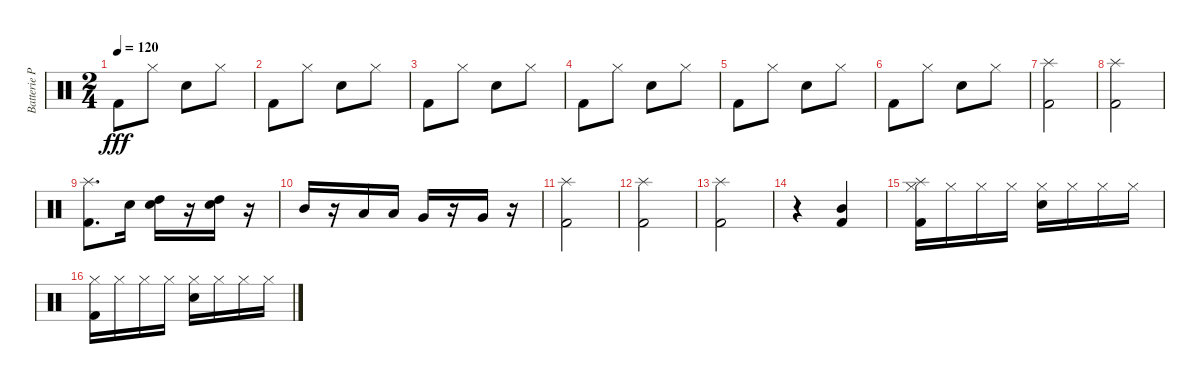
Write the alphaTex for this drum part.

\track ("Batterie Pako" "Batterie P") {instrument percussion}
\staff {score}
\articulation defaults
\ts (2 4)
\tempo 120
\clef neutral
\ks c "Kick (hit) 2".8{dy fff} "Hi-Hat (closed)".8 "Electric Snare (hit)".8 "Hi-Hat (closed)".8
|
"Kick (hit) 2".8 "Hi-Hat (closed)".8 "Electric Snare (hit)".8 "Hi-Hat (closed)".8 |
"Kick (hit) 2".8 "Hi-Hat (closed)".8 "Electric Snare (hit)".8 "Hi-Hat (closed)".8 |
"Kick (hit) 2".8 "Hi-Hat (closed)".8 "Electric Snare (hit)".8 "Hi-Hat (closed)".8 |
"Kick (hit) 2".8 "Hi-Hat (closed)".8 "Electric Snare (hit)".8 "Hi-Hat (closed)".8 |
"Kick (hit) 2".8 "Hi-Hat (closed)".8 "Electric Snare (hit)".8 "Hi-Hat (closed)".8 |
("Kick (hit) 2" "Splash (hit)").2 |
("Kick (hit) 2" "Splash (hit)").2 |
("Kick (hit) 2" "Splash (hit)").8{d} "Electric Snare (hit)".16 ("Electric Snare (hit)" "High Tom (hit)").16 r.16 ("Electric Snare (hit)" "High Tom (hit)").16 r.16 |
"Mid Tom (hit)".16 r.16 "Low Tom (hit)".16 "Low Tom (hit)".16 "Very Low Tom (hit)".16 r.16 "Very Low Tom (hit)".16 r.16 |
("Kick (hit) 2" "Splash (hit)").2 |
("Kick (hit) 2" "Splash (hit)").2 |
("Kick (hit) 2" "Splash (hit)").2 |
r.4 ("Kick (hit) 2" "Mid Tom (hit)").4 |
("Kick (hit) 2" "Hi-Hat (closed)" "Splash (hit)").16 "Hi-Hat (closed)".16 "Hi-Hat (closed)".16 "Hi-Hat (closed)".16 ("Hi-Hat (closed)" "Electric Snare (hit)").16 "Hi-Hat (closed)".16 "Hi-Hat (closed)".16 "Hi-Hat (closed)".16 |
("Kick (hit) 2" "Hi-Hat (closed)").16 "Hi-Hat (closed)".16 "Hi-Hat (closed)".16 "Hi-Hat (closed)".16 ("Hi-Hat (closed)" "Electric Snare (hit)").16 "Hi-Hat (closed)".16 "Hi-Hat (closed)".16 "Hi-Hat (closed)".16
